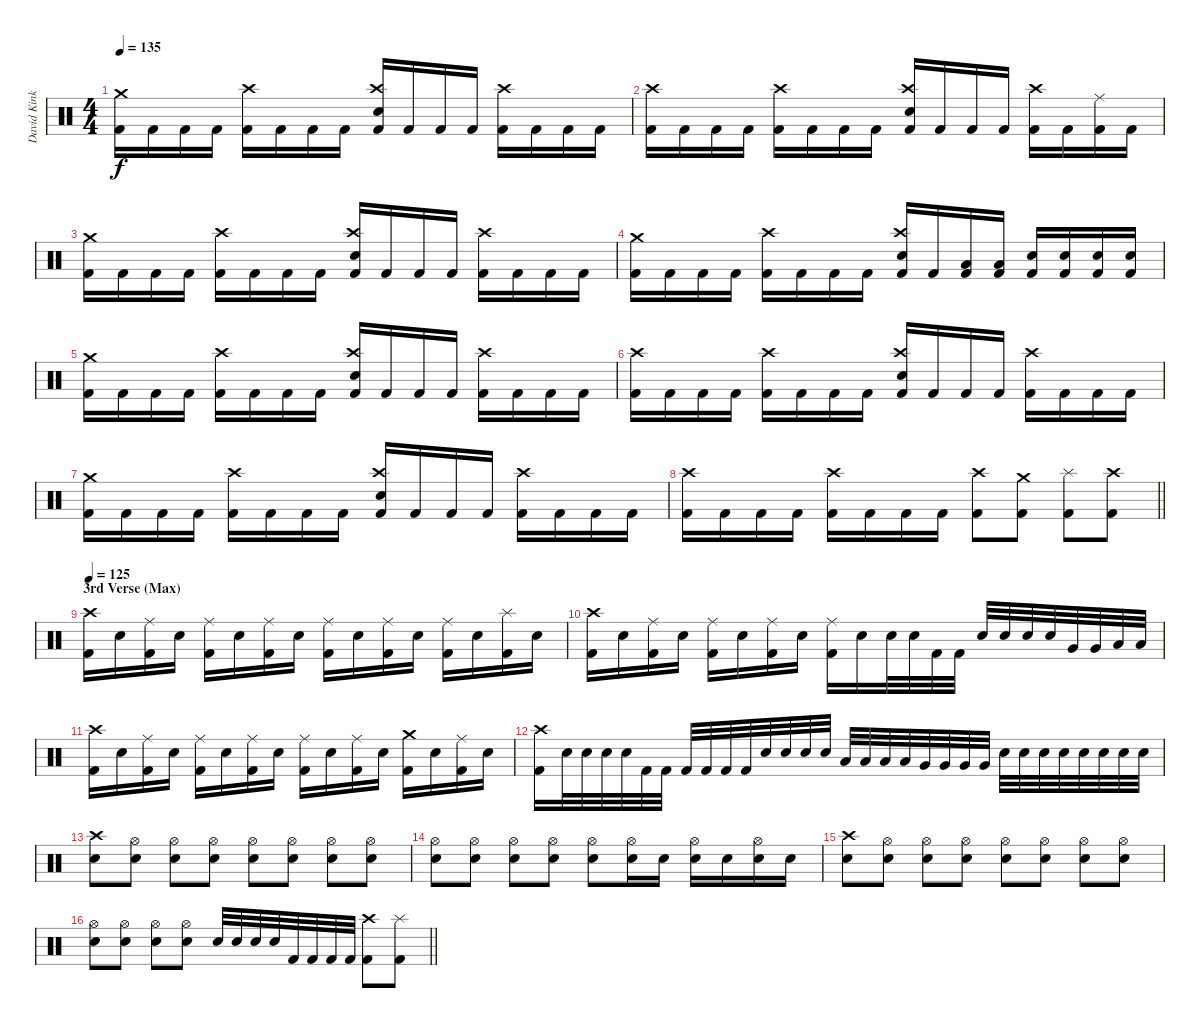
\track ("David Kinkade" "David Kink") {instrument percussion}
\staff {score}
\articulation defaults
\ts (4 4)
\tempo 135
\clef neutral
\ks c
("Crash medium (hit)" "Kick (hit) 2").16{dy f} "Kick (hit) 2".16 "Kick (hit) 2".16 "Kick (hit) 2".16 ("Crash high (hit)" "Kick (hit) 2").16 "Kick (hit) 2".16 "Kick (hit) 2".16 "Kick (hit) 2".16 ("Crash high (hit)" "Snare (hit) 2" "Kick (hit) 2").16 "Kick (hit) 2".16 "Kick (hit) 2".16 "Kick (hit) 2".16 ("Crash high (hit)" "Kick (hit) 2").16 "Kick (hit) 2".16 "Kick (hit) 2".16 "Kick (hit) 2".16 |
("Crash high (hit)" "Kick (hit) 2").16 "Kick (hit) 2".16 "Kick (hit) 2".16 "Kick (hit) 2".16 ("Crash high (hit)" "Kick (hit) 2").16 "Kick (hit) 2".16 "Kick (hit) 2".16 "Kick (hit) 2".16 ("Crash high (hit)" "Snare (hit) 2" "Kick (hit) 2").16 "Kick (hit) 2".16 "Kick (hit) 2".16 "Kick (hit) 2".16 ("Crash high (hit)" "Kick (hit) 2").16 "Kick (hit) 2".16 ("Ride (middle)" "Kick (hit) 2").16 "Kick (hit) 2".16 |
("Crash medium (hit)" "Kick (hit) 2").16 "Kick (hit) 2".16 "Kick (hit) 2".16 "Kick (hit) 2".16 ("Crash high (hit)" "Kick (hit) 2").16 "Kick (hit) 2".16 "Kick (hit) 2".16 "Kick (hit) 2".16 ("Crash high (hit)" "Snare (hit) 2" "Kick (hit) 2").16 "Kick (hit) 2".16 "Kick (hit) 2".16 "Kick (hit) 2".16 ("Crash high (hit)" "Kick (hit) 2").16 "Kick (hit) 2".16 "Kick (hit) 2".16 "Kick (hit) 2".16 |
("Crash medium (hit)" "Kick (hit) 2").16 "Kick (hit) 2".16 "Kick (hit) 2".16 "Kick (hit) 2".16 ("Crash high (hit)" "Kick (hit) 2").16 "Kick (hit) 2".16 "Kick (hit) 2".16 "Kick (hit) 2".16 ("Crash high (hit)" "Snare (hit) 2" "Kick (hit) 2").16 "Kick (hit) 2".16 ("Low Tom (hit)" "Kick (hit) 2").16 ("Low Tom (hit)" "Kick (hit) 2").16 ("Snare (hit) 2" "Kick (hit) 2").16 ("Snare (hit) 2" "Kick (hit) 2").16 ("Snare (hit) 2" "Kick (hit) 2").16 ("Snare (hit) 2" "Kick (hit) 2").16 |
("Crash medium (hit)" "Kick (hit) 2").16 "Kick (hit) 2".16 "Kick (hit) 2".16 "Kick (hit) 2".16 ("Crash high (hit)" "Kick (hit) 2").16 "Kick (hit) 2".16 "Kick (hit) 2".16 "Kick (hit) 2".16 ("Crash high (hit)" "Snare (hit) 2" "Kick (hit) 2").16 "Kick (hit) 2".16 "Kick (hit) 2".16 "Kick (hit) 2".16 ("Crash high (hit)" "Kick (hit) 2").16 "Kick (hit) 2".16 "Kick (hit) 2".16 "Kick (hit) 2".16 |
("Crash high (hit)" "Kick (hit) 2").16 "Kick (hit) 2".16 "Kick (hit) 2".16 "Kick (hit) 2".16 ("Crash high (hit)" "Kick (hit) 2").16 "Kick (hit) 2".16 "Kick (hit) 2".16 "Kick (hit) 2".16 ("Crash high (hit)" "Snare (hit) 2" "Kick (hit) 2").16 "Kick (hit) 2".16 "Kick (hit) 2".16 "Kick (hit) 2".16 ("Crash high (hit)" "Kick (hit) 2").16 "Kick (hit) 2".16 "Kick (hit) 2".16 "Kick (hit) 2".16 |
("Crash medium (hit)" "Kick (hit) 2").16 "Kick (hit) 2".16 "Kick (hit) 2".16 "Kick (hit) 2".16 ("Crash high (hit)" "Kick (hit) 2").16 "Kick (hit) 2".16 "Kick (hit) 2".16 "Kick (hit) 2".16 ("Crash high (hit)" "Snare (hit) 2" "Kick (hit) 2").16 "Kick (hit) 2".16 "Kick (hit) 2".16 "Kick (hit) 2".16 ("Crash high (hit)" "Kick (hit) 2").16 "Kick (hit) 2".16 "Kick (hit) 2".16 "Kick (hit) 2".16 |
\barLineRight lightlight
("Crash high (hit)" "Kick (hit) 2").16 "Kick (hit) 2".16 "Kick (hit) 2".16 "Kick (hit) 2".16 ("Crash high (hit)" "Kick (hit) 2").16 "Kick (hit) 2".16 "Kick (hit) 2".16 "Kick (hit) 2".16 ("Crash high (hit)" "Kick (hit) 2").8 ("Crash medium (hit)" "Kick (hit) 2").8 ("Splash (hit)" "Kick (hit) 2").8 ("Crash high (hit)" "Kick (hit) 2").8 |
\section ("" "3rd Verse (Max)")
\tempo 125
("Crash high (hit)" "Kick (hit) 2").16 "Snare (hit) 2".16 ("Ride (middle)" "Kick (hit) 2").16 "Snare (hit) 2".16 ("Ride (middle)" "Kick (hit) 2").16 "Snare (hit) 2".16 ("Ride (middle)" "Kick (hit) 2").16 "Snare (hit) 2".16 ("Ride (middle)" "Kick (hit) 2").16 "Snare (hit) 2".16 ("Ride (middle)" "Kick (hit) 2").16 "Snare (hit) 2".16 ("Ride (middle)" "Kick (hit) 2").16 "Snare (hit) 2".16 ("Splash (hit)" "Kick (hit) 2").16 "Snare (hit) 2".16 |
("Crash high (hit)" "Kick (hit) 2").16 "Snare (hit) 2".16 ("Ride (middle)" "Kick (hit) 2").16 "Snare (hit) 2".16 ("Ride (middle)" "Kick (hit) 2").16 "Snare (hit) 2".16 ("Ride (middle)" "Kick (hit) 2").16 "Snare (hit) 2".16 ("Ride (middle)" "Kick (hit) 2").16 "Snare (hit) 2".16 "Snare (hit) 2".32 "Snare (hit) 2".32 "Kick (hit) 2".32 "Kick (hit) 2".32 "Snare (hit) 2".32 "Snare (hit) 2".32 "Snare (hit) 2".32 "Snare (hit) 2".32 "Very Low Tom (hit)".32 "Very Low Tom (hit)".32 "Low Floor Tom (hit)".32 "Low Floor Tom (hit)".32 |
("Crash high (hit)" "Kick (hit) 2").16 "Snare (hit) 2".16 ("Ride (middle)" "Kick (hit) 2").16 "Snare (hit) 2".16 ("Ride (middle)" "Kick (hit) 2").16 "Snare (hit) 2".16 ("Ride (middle)" "Kick (hit) 2").16 "Snare (hit) 2".16 ("Ride (middle)" "Kick (hit) 2").16 "Snare (hit) 2".16 ("Ride (middle)" "Kick (hit) 2").16 "Snare (hit) 2".16 ("Crash medium (hit)" "Kick (hit) 2").16 "Snare (hit) 2".16 ("Ride (middle)" "Kick (hit) 2").16 "Snare (hit) 2".16 |
("Crash high (hit)" "Kick (hit) 2").16 "Snare (hit) 2".32 "Snare (hit) 2".32 "Snare (hit) 2".32 "Snare (hit) 2".32 "Kick (hit) 2".32 "Kick (hit) 2".32 "Kick (hit) 2".32 "Kick (hit) 2".32 "Kick (hit) 2".32 "Kick (hit) 2".32 "Snare (hit) 2".32 "Snare (hit) 2".32 "Snare (hit) 2".32 "Snare (hit) 2".32 "Low Tom (hit)".32 "Low Tom (hit)".32 "Low Tom (hit)".32 "Low Tom (hit)".32 "Very Low Tom (hit)".32 "Very Low Tom (hit)".32 "Very Low Tom (hit)".32 "Very Low Tom (hit)".32 "Snare (hit) 2".32 "Snare (hit) 2".32 "Snare (hit) 2".32 "Snare (hit) 2".32 "Snare (hit) 2".32 "Snare (hit) 2".32 "Snare (hit) 2".32 "Snare (hit) 2".32 |
("Crash high (hit)" "Snare (hit) 2").8 ("Hi-Hat (open)" "Snare (hit) 2").8 ("Hi-Hat (open)" "Snare (hit) 2").8 ("Hi-Hat (open)" "Snare (hit) 2").8 ("Hi-Hat (open)" "Snare (hit) 2").8 ("Hi-Hat (open)" "Snare (hit) 2").8 ("Hi-Hat (open)" "Snare (hit) 2").8 ("Hi-Hat (open)" "Snare (hit) 2").8 |
("Hi-Hat (open)" "Snare (hit) 2").8 ("Hi-Hat (open)" "Snare (hit) 2").8 ("Hi-Hat (open)" "Snare (hit) 2").8 ("Hi-Hat (open)" "Snare (hit) 2").8 ("Hi-Hat (open)" "Snare (hit) 2").8 ("Hi-Hat (open)" "Snare (hit) 2").16 "Snare (hit) 2".16 ("Hi-Hat (open)" "Snare (hit) 2").16 "Snare (hit) 2".16 ("Hi-Hat (open)" "Snare (hit) 2").16 "Snare (hit) 2".16 |
("Crash high (hit)" "Snare (hit) 2").8 ("Hi-Hat (open)" "Snare (hit) 2").8 ("Hi-Hat (open)" "Snare (hit) 2").8 ("Hi-Hat (open)" "Snare (hit) 2").8 ("Hi-Hat (open)" "Snare (hit) 2").8 ("Hi-Hat (open)" "Snare (hit) 2").8 ("Hi-Hat (open)" "Snare (hit) 2").8 ("Hi-Hat (open)" "Snare (hit) 2").8 |
\barLineRight lightlight
("Hi-Hat (open)" "Snare (hit) 2").8 ("Hi-Hat (open)" "Snare (hit) 2").8 ("Hi-Hat (open)" "Snare (hit) 2").8 ("Hi-Hat (open)" "Snare (hit) 2").8 "Snare (hit) 2".32 "Snare (hit) 2".32 "Snare (hit) 2".32 "Snare (hit) 2".32 "Kick (hit) 2".32 "Kick (hit) 2".32 "Kick (hit) 2".32 "Kick (hit) 2".32 ("Crash high (hit)" "Kick (hit) 2").8 ("Splash (hit)" "Kick (hit) 2").8
